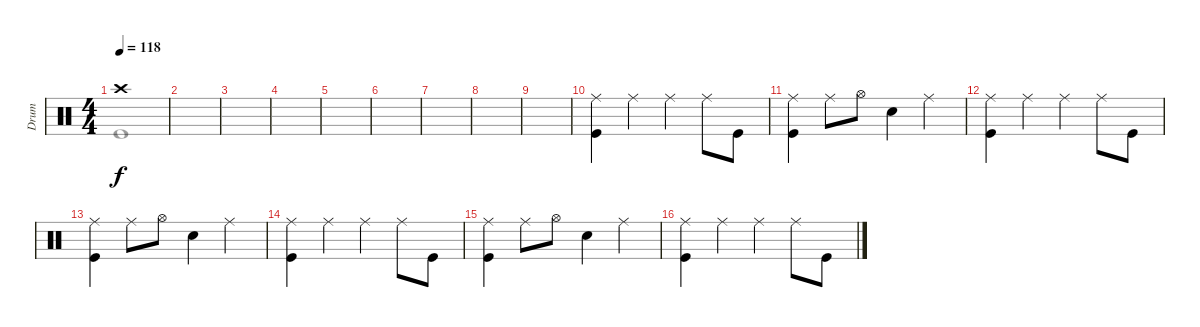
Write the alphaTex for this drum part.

\track ("Drum" "Drum") {instrument percussion}
\staff {score}
\articulation defaults
\voice
\ts (4 4)
\tempo 118
\clef neutral
\ks c "Crash high (hit)"{t}.1{dy f}
|
|
|
|
|
|
|
|
|
("Kick (hit)" "Ride (middle)").4 "Ride (middle)".4 "Ride (middle)".4 "Ride (middle)".8 "Kick (hit)".8 |
("Kick (hit)" "Ride (middle)").4 "Ride (middle)".8 "Hi-Hat (open)".8 "Snare (hit) 2".4 "Ride (middle)".4 |
("Kick (hit)" "Ride (middle)").4 "Ride (middle)".4 "Ride (middle)".4 "Ride (middle)".8 "Kick (hit)".8 |
("Kick (hit)" "Ride (middle)").4 "Ride (middle)".8 "Hi-Hat (open)".8 "Snare (hit) 2".4 "Ride (middle)".4 |
("Kick (hit)" "Ride (middle)").4 "Ride (middle)".4 "Ride (middle)".4 "Ride (middle)".8 "Kick (hit)".8 |
("Kick (hit)" "Ride (middle)").4 "Ride (middle)".8 "Hi-Hat (open)".8 "Snare (hit) 2".4 "Ride (middle)".4 |
("Kick (hit)" "Ride (middle)").4 "Ride (middle)".4 "Ride (middle)".4 "Ride (middle)".8 "Kick (hit)".8
\voice
\clef neutral
\ottava regular
\simile none
\ks c "Kick (hit)"{t}.1{dy f}
|
|
|
|
|
|
|
|
|
|
|
|
|
|
|
